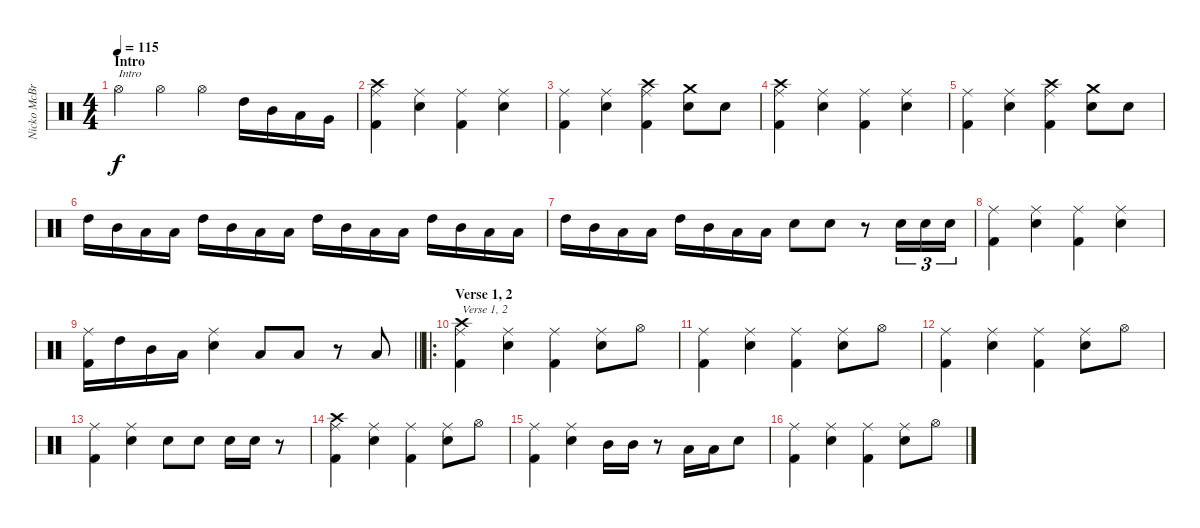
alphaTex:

\track ("Nicko McBrain" "Nicko McBr") {instrument percussion}
\staff {score}
\articulation defaults
\ts (4 4)
\section ("" "Intro")
\tempo 115
\clef neutral
\ks c "Hi-Hat (open)".4{txt "Intro" dy f} "Hi-Hat (open)".4 "Hi-Hat (open)".4 "High Tom (hit)".16 "Mid Tom (hit)".16 "Low Tom (hit)".16 "Very Low Tom (hit)".16
|
("Ride (middle)" "Kick (hit) 2" "Crash high (hit)").4 ("Ride (middle)" "Snare (hit) 2").4 ("Ride (middle)" "Kick (hit) 2").4 ("Ride (middle)" "Snare (hit) 2").4 |
("Ride (middle)" "Kick (hit) 2").4 ("Ride (middle)" "Snare (hit) 2").4 ("Ride (middle)" "Kick (hit) 2" "Crash high (hit)").4 ("Snare (hit) 2" "Crash medium (hit)").8 "Snare (hit) 2".8 |
("Ride (middle)" "Kick (hit) 2" "Crash high (hit)").4 ("Ride (middle)" "Snare (hit) 2").4 ("Ride (middle)" "Kick (hit) 2").4 ("Ride (middle)" "Snare (hit) 2").4 |
("Ride (middle)" "Kick (hit) 2").4 ("Ride (middle)" "Snare (hit) 2").4 ("Ride (middle)" "Kick (hit) 2" "Crash high (hit)").4 ("Snare (hit) 2" "Crash medium (hit)").8 "Snare (hit) 2".8 |
"High Tom (hit)".16 "Mid Tom (hit)".16 "Low Tom (hit)".16 "Low Tom (hit)".16 "High Tom (hit)".16 "Mid Tom (hit)".16 "Low Tom (hit)".16 "Low Tom (hit)".16 "High Tom (hit)".16 "Mid Tom (hit)".16 "Low Tom (hit)".16 "Low Tom (hit)".16 "High Tom (hit)".16 "Mid Tom (hit)".16 "Low Tom (hit)".16 "Low Tom (hit)".16 |
"High Tom (hit)".16 "Mid Tom (hit)".16 "Low Tom (hit)".16 "Low Tom (hit)".16 "High Tom (hit)".16 "Mid Tom (hit)".16 "Low Tom (hit)".16 "Low Tom (hit)".16 "Snare (hit) 2".8 "Snare (hit) 2".8 r.8 "Snare (hit) 2".16{tu (3 2)} "Snare (hit) 2".16{tu (3 2)} "Snare (hit) 2".16{tu (3 2)} |
("Ride (middle)" "Kick (hit) 2").4 ("Ride (middle)" "Snare (hit) 2").4 ("Ride (middle)" "Kick (hit) 2").4 ("Ride (middle)" "Snare (hit) 2").4 |
\barLineRight lightlight
("Ride (middle)" "Kick (hit) 2").16 "High Tom (hit)".16 "Mid Tom (hit)".16 "Low Tom (hit)".16 ("Ride (middle)" "Snare (hit) 2").4 "Low Tom (hit)".8 "Low Tom (hit)".8 r.8 "Low Tom (hit)".8 |
\ro
\section ("" "Verse 1, 2")
("Ride (middle)" "Kick (hit) 2" "Crash high (hit)").4{txt "Verse 1, 2"} ("Ride (middle)" "Snare (hit) 2").4 ("Ride (middle)" "Kick (hit) 2").4 ("Ride (middle)" "Snare (hit) 2").8 "Hi-Hat (open)".8 |
("Ride (middle)" "Kick (hit) 2").4 ("Ride (middle)" "Snare (hit) 2").4 ("Ride (middle)" "Kick (hit) 2").4 ("Ride (middle)" "Snare (hit) 2").8 "Hi-Hat (open)".8 |
("Ride (middle)" "Kick (hit) 2").4 ("Ride (middle)" "Snare (hit) 2").4 ("Ride (middle)" "Kick (hit) 2").4 ("Ride (middle)" "Snare (hit) 2").8 "Hi-Hat (open)".8 |
("Ride (middle)" "Kick (hit) 2").4 ("Ride (middle)" "Snare (hit) 2").4 "Snare (hit) 2".8 "Snare (hit) 2".8 "Snare (hit) 2".16 "Snare (hit) 2".16 r.8 |
("Ride (middle)" "Kick (hit) 2" "Crash high (hit)").4 ("Ride (middle)" "Snare (hit) 2").4 ("Ride (middle)" "Kick (hit) 2").4 ("Ride (middle)" "Snare (hit) 2").8 "Hi-Hat (open)".8 |
("Ride (middle)" "Kick (hit) 2").4 ("Ride (middle)" "Snare (hit) 2").4 "Mid Tom (hit)".16 "Mid Tom (hit)".16 r.8 "Low Tom (hit)".16 "Low Tom (hit)".16 "Snare (hit) 2".8 |
("Ride (middle)" "Kick (hit) 2").4 ("Ride (middle)" "Snare (hit) 2").4 ("Ride (middle)" "Kick (hit) 2").4 ("Ride (middle)" "Snare (hit) 2").8 "Hi-Hat (open)".8
